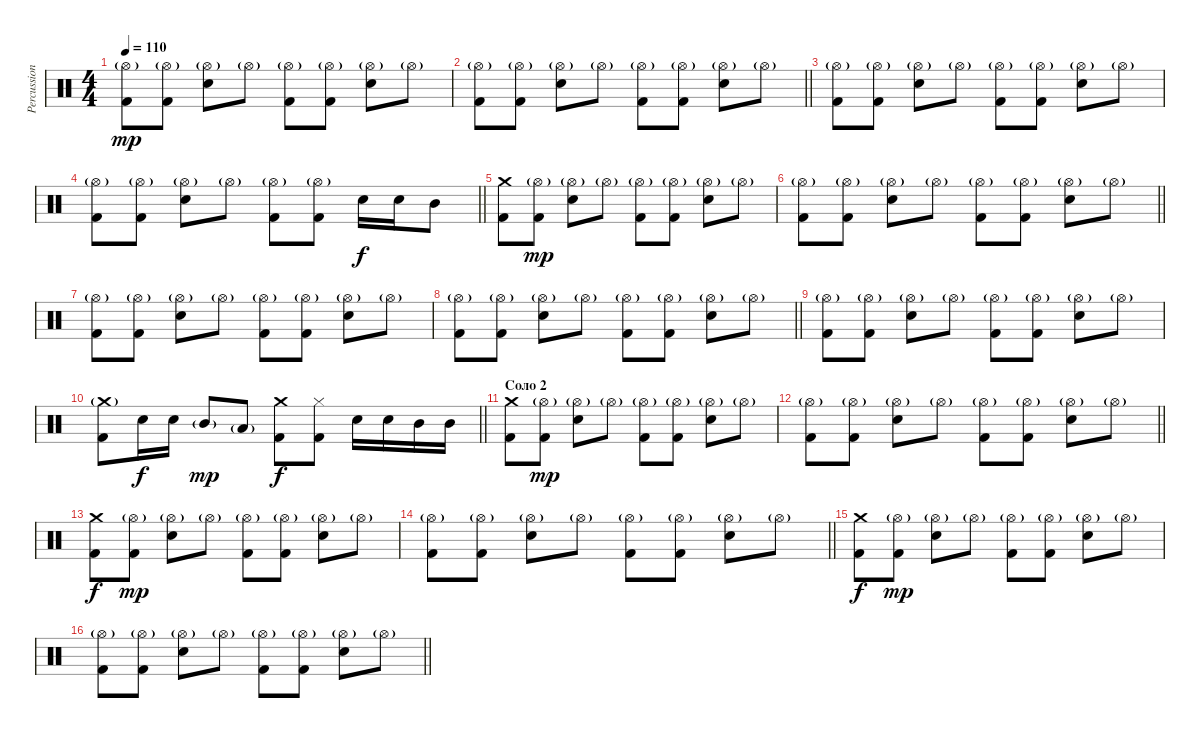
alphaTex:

\track ("Percussion" "Percussion") {instrument percussion}
\staff {score}
\articulation defaults
\ts (4 4)
\tempo 110
\clef neutral
\ks c
("Kick (hit) 2" "Hi-Hat (open)"{g}).8{dy mp} ("Kick (hit) 2" "Hi-Hat (open)"{g}).8 ("Electric Snare (hit)" "Hi-Hat (open)"{g}).8 "Hi-Hat (open)"{g}.8 ("Kick (hit) 2" "Hi-Hat (open)"{g}).8 ("Kick (hit) 2" "Hi-Hat (open)"{g}).8 ("Electric Snare (hit)" "Hi-Hat (open)"{g}).8 "Hi-Hat (open)"{g}.8 |
\barLineRight lightlight
("Kick (hit) 2" "Hi-Hat (open)"{g}).8 ("Kick (hit) 2" "Hi-Hat (open)"{g}).8 ("Electric Snare (hit)" "Hi-Hat (open)"{g}).8 "Hi-Hat (open)"{g}.8 ("Kick (hit) 2" "Hi-Hat (open)"{g}).8 ("Kick (hit) 2" "Hi-Hat (open)"{g}).8 ("Electric Snare (hit)" "Hi-Hat (open)"{g}).8 "Hi-Hat (open)"{g}.8 |
("Kick (hit) 2" "Hi-Hat (open)"{g}).8 ("Kick (hit) 2" "Hi-Hat (open)"{g}).8 ("Electric Snare (hit)" "Hi-Hat (open)"{g}).8 "Hi-Hat (open)"{g}.8 ("Kick (hit) 2" "Hi-Hat (open)"{g}).8 ("Kick (hit) 2" "Hi-Hat (open)"{g}).8 ("Electric Snare (hit)" "Hi-Hat (open)"{g}).8 "Hi-Hat (open)"{g}.8 |
\barLineRight lightlight
("Kick (hit) 2" "Hi-Hat (open)"{g}).8 ("Kick (hit) 2" "Hi-Hat (open)"{g}).8 ("Electric Snare (hit)" "Hi-Hat (open)"{g}).8 "Hi-Hat (open)"{g}.8 ("Kick (hit) 2" "Hi-Hat (open)"{g}).8 ("Kick (hit) 2" "Hi-Hat (open)"{g}).8 "Electric Snare (hit)".16{dy f} "Electric Snare (hit)".16 "Mid Tom (hit)".8 |
("Kick (hit) 2" "Crash medium (hit)").8 ("Kick (hit) 2" "Hi-Hat (open)"{g}).8{dy mp} ("Electric Snare (hit)" "Hi-Hat (open)"{g}).8 "Hi-Hat (open)"{g}.8 ("Kick (hit) 2" "Hi-Hat (open)"{g}).8 ("Kick (hit) 2" "Hi-Hat (open)"{g}).8 ("Electric Snare (hit)" "Hi-Hat (open)"{g}).8 "Hi-Hat (open)"{g}.8 |
\barLineRight lightlight
("Kick (hit) 2" "Hi-Hat (open)"{g}).8 ("Kick (hit) 2" "Hi-Hat (open)"{g}).8 ("Electric Snare (hit)" "Hi-Hat (open)"{g}).8 "Hi-Hat (open)"{g}.8 ("Kick (hit) 2" "Hi-Hat (open)"{g}).8 ("Kick (hit) 2" "Hi-Hat (open)"{g}).8 ("Electric Snare (hit)" "Hi-Hat (open)"{g}).8 "Hi-Hat (open)"{g}.8 |
("Kick (hit) 2" "Hi-Hat (open)"{g}).8 ("Kick (hit) 2" "Hi-Hat (open)"{g}).8 ("Electric Snare (hit)" "Hi-Hat (open)"{g}).8 "Hi-Hat (open)"{g}.8 ("Kick (hit) 2" "Hi-Hat (open)"{g}).8 ("Kick (hit) 2" "Hi-Hat (open)"{g}).8 ("Electric Snare (hit)" "Hi-Hat (open)"{g}).8 "Hi-Hat (open)"{g}.8 |
\barLineRight lightlight
("Kick (hit) 2" "Hi-Hat (open)"{g}).8 ("Kick (hit) 2" "Hi-Hat (open)"{g}).8 ("Electric Snare (hit)" "Hi-Hat (open)"{g}).8 "Hi-Hat (open)"{g}.8 ("Kick (hit) 2" "Hi-Hat (open)"{g}).8 ("Kick (hit) 2" "Hi-Hat (open)"{g}).8 ("Electric Snare (hit)" "Hi-Hat (open)"{g}).8 "Hi-Hat (open)"{g}.8 |
("Kick (hit) 2" "Hi-Hat (open)"{g}).8 ("Kick (hit) 2" "Hi-Hat (open)"{g}).8 ("Electric Snare (hit)" "Hi-Hat (open)"{g}).8 "Hi-Hat (open)"{g}.8 ("Kick (hit) 2" "Hi-Hat (open)"{g}).8 ("Kick (hit) 2" "Hi-Hat (open)"{g}).8 ("Electric Snare (hit)" "Hi-Hat (open)"{g}).8 "Hi-Hat (open)"{g}.8 |
\barLineRight lightlight
("Kick (hit) 2" "Crash medium (hit)"{g}).8 "Electric Snare (hit)".16{dy f} "Electric Snare (hit)".16 "Mid Tom (hit)"{g}.8{dy mp} "Low Tom (hit)"{g}.8 ("Kick (hit) 2" "Crash medium (hit)").8{dy f} ("Kick (hit) 2" "Hi-Hat (closed)").8 "Electric Snare (hit)".16 "Electric Snare (hit)".16 "Mid Tom (hit)".16 "Mid Tom (hit)".16 |
\section ("" "Соло 2")
("Kick (hit) 2" "Crash medium (hit)").8 ("Kick (hit) 2" "Hi-Hat (open)"{g}).8{dy mp} ("Electric Snare (hit)" "Hi-Hat (open)"{g}).8 "Hi-Hat (open)"{g}.8 ("Kick (hit) 2" "Hi-Hat (open)"{g}).8 ("Kick (hit) 2" "Hi-Hat (open)"{g}).8 ("Electric Snare (hit)" "Hi-Hat (open)"{g}).8 "Hi-Hat (open)"{g}.8 |
\barLineRight lightlight
("Kick (hit) 2" "Hi-Hat (open)"{g}).8 ("Kick (hit) 2" "Hi-Hat (open)"{g}).8 ("Electric Snare (hit)" "Hi-Hat (open)"{g}).8 "Hi-Hat (open)"{g}.8 ("Kick (hit) 2" "Hi-Hat (open)"{g}).8 ("Kick (hit) 2" "Hi-Hat (open)"{g}).8 ("Electric Snare (hit)" "Hi-Hat (open)"{g}).8 "Hi-Hat (open)"{g}.8 |
("Kick (hit) 2" "Crash medium (hit)").8{dy f} ("Kick (hit) 2" "Hi-Hat (open)"{g}).8{dy mp} ("Electric Snare (hit)" "Hi-Hat (open)"{g}).8 "Hi-Hat (open)"{g}.8 ("Kick (hit) 2" "Hi-Hat (open)"{g}).8 ("Kick (hit) 2" "Hi-Hat (open)"{g}).8 ("Electric Snare (hit)" "Hi-Hat (open)"{g}).8 "Hi-Hat (open)"{g}.8 |
\barLineRight lightlight
("Kick (hit) 2" "Hi-Hat (open)"{g}).8 ("Kick (hit) 2" "Hi-Hat (open)"{g}).8 ("Electric Snare (hit)" "Hi-Hat (open)"{g}).8 "Hi-Hat (open)"{g}.8 ("Kick (hit) 2" "Hi-Hat (open)"{g}).8 ("Kick (hit) 2" "Hi-Hat (open)"{g}).8 ("Electric Snare (hit)" "Hi-Hat (open)"{g}).8 "Hi-Hat (open)"{g}.8 |
("Kick (hit) 2" "Crash medium (hit)").8{dy f} ("Kick (hit) 2" "Hi-Hat (open)"{g}).8{dy mp} ("Electric Snare (hit)" "Hi-Hat (open)"{g}).8 "Hi-Hat (open)"{g}.8 ("Kick (hit) 2" "Hi-Hat (open)"{g}).8 ("Kick (hit) 2" "Hi-Hat (open)"{g}).8 ("Electric Snare (hit)" "Hi-Hat (open)"{g}).8 "Hi-Hat (open)"{g}.8 |
\barLineRight lightlight
("Kick (hit) 2" "Hi-Hat (open)"{g}).8 ("Kick (hit) 2" "Hi-Hat (open)"{g}).8 ("Electric Snare (hit)" "Hi-Hat (open)"{g}).8 "Hi-Hat (open)"{g}.8 ("Kick (hit) 2" "Hi-Hat (open)"{g}).8 ("Kick (hit) 2" "Hi-Hat (open)"{g}).8 ("Electric Snare (hit)" "Hi-Hat (open)"{g}).8 "Hi-Hat (open)"{g}.8
